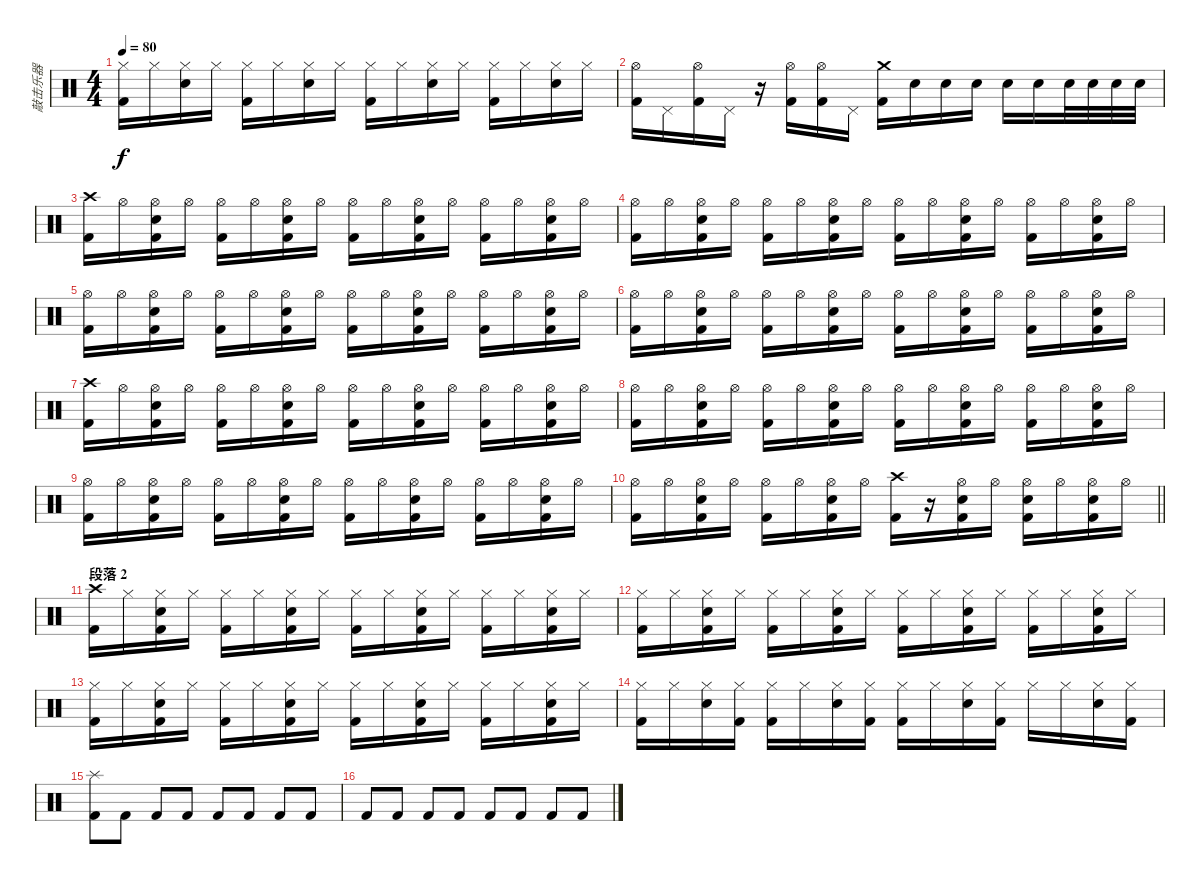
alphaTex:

\track ("敲击乐器" "敲击乐器") {instrument percussion}
\staff {score}
\articulation defaults
\ts (4 4)
\tempo 80
\clef neutral
\ks c
("Hi-Hat (closed)" "Kick (hit) 2").16{dy f} "Hi-Hat (closed)".16 ("Hi-Hat (closed)" "Electric Snare (hit)").16 "Hi-Hat (closed)".16 ("Hi-Hat (closed)" "Kick (hit) 2").16 "Hi-Hat (closed)".16 ("Hi-Hat (closed)" "Electric Snare (hit)").16 "Hi-Hat (closed)".16 ("Hi-Hat (closed)" "Kick (hit) 2").16 "Hi-Hat (closed)".16 ("Hi-Hat (closed)" "Electric Snare (hit)").16 "Hi-Hat (closed)".16 ("Hi-Hat (closed)" "Kick (hit) 2").16 "Hi-Hat (closed)".16 ("Hi-Hat (closed)" "Electric Snare (hit)").16 "Hi-Hat (closed)".16 |
("Hi-Hat (open)" "Kick (hit) 2").16 "Pedal Hi-Hat (hit)".16 ("Hi-Hat (open)" "Kick (hit) 2").16 "Pedal Hi-Hat (hit)".16 r.16 ("Hi-Hat (open)" "Kick (hit) 2").16 ("Hi-Hat (open)" "Kick (hit) 2").16 "Pedal Hi-Hat (hit)".16 ("Crash medium (hit)" "Kick (hit) 2").16 "Electric Snare (hit)".16 "Electric Snare (hit)".16 "Electric Snare (hit)".16 "Electric Snare (hit)".16 "Electric Snare (hit)".16 "Electric Snare (hit)".32 "Electric Snare (hit)".32 "Electric Snare (hit)".32 "Electric Snare (hit)".32 |
("Crash high (hit)" "Kick (hit) 2").16 "Hi-Hat (open)".16 ("Hi-Hat (open)" "Electric Snare (hit)" "Kick (hit) 2").16 "Hi-Hat (open)".16 ("Hi-Hat (open)" "Kick (hit) 2").16 "Hi-Hat (open)".16 ("Hi-Hat (open)" "Electric Snare (hit)" "Kick (hit) 2").16 "Hi-Hat (open)".16 ("Hi-Hat (open)" "Kick (hit) 2").16 "Hi-Hat (open)".16 ("Hi-Hat (open)" "Electric Snare (hit)" "Kick (hit) 2").16 "Hi-Hat (open)".16 ("Hi-Hat (open)" "Kick (hit) 2").16 "Hi-Hat (open)".16 ("Hi-Hat (open)" "Electric Snare (hit)" "Kick (hit) 2").16 "Hi-Hat (open)".16 |
("Hi-Hat (open)" "Kick (hit) 2").16 "Hi-Hat (open)".16 ("Hi-Hat (open)" "Electric Snare (hit)" "Kick (hit) 2").16 "Hi-Hat (open)".16 ("Hi-Hat (open)" "Kick (hit) 2").16 "Hi-Hat (open)".16 ("Hi-Hat (open)" "Electric Snare (hit)" "Kick (hit) 2").16 "Hi-Hat (open)".16 ("Hi-Hat (open)" "Kick (hit) 2").16 "Hi-Hat (open)".16 ("Hi-Hat (open)" "Electric Snare (hit)" "Kick (hit) 2").16 "Hi-Hat (open)".16 ("Hi-Hat (open)" "Kick (hit) 2").16 "Hi-Hat (open)".16 ("Hi-Hat (open)" "Electric Snare (hit)" "Kick (hit) 2").16 "Hi-Hat (open)".16 |
("Hi-Hat (open)" "Kick (hit) 2").16 "Hi-Hat (open)".16 ("Hi-Hat (open)" "Electric Snare (hit)" "Kick (hit) 2").16 "Hi-Hat (open)".16 ("Hi-Hat (open)" "Kick (hit) 2").16 "Hi-Hat (open)".16 ("Hi-Hat (open)" "Electric Snare (hit)" "Kick (hit) 2").16 "Hi-Hat (open)".16 ("Hi-Hat (open)" "Kick (hit) 2").16 "Hi-Hat (open)".16 ("Hi-Hat (open)" "Electric Snare (hit)" "Kick (hit) 2").16 "Hi-Hat (open)".16 ("Hi-Hat (open)" "Kick (hit) 2").16 "Hi-Hat (open)".16 ("Hi-Hat (open)" "Electric Snare (hit)" "Kick (hit) 2").16 "Hi-Hat (open)".16 |
("Hi-Hat (open)" "Kick (hit) 2").16 "Hi-Hat (open)".16 ("Hi-Hat (open)" "Electric Snare (hit)" "Kick (hit) 2").16 "Hi-Hat (open)".16 ("Hi-Hat (open)" "Kick (hit) 2").16 "Hi-Hat (open)".16 ("Hi-Hat (open)" "Electric Snare (hit)" "Kick (hit) 2").16 "Hi-Hat (open)".16 ("Hi-Hat (open)" "Kick (hit) 2").16 "Hi-Hat (open)".16 ("Hi-Hat (open)" "Electric Snare (hit)" "Kick (hit) 2").16 "Hi-Hat (open)".16 ("Hi-Hat (open)" "Kick (hit) 2").16 "Hi-Hat (open)".16 ("Hi-Hat (open)" "Electric Snare (hit)" "Kick (hit) 2").16 "Hi-Hat (open)".16 |
("Crash high (hit)" "Kick (hit) 2").16 "Hi-Hat (open)".16 ("Hi-Hat (open)" "Electric Snare (hit)" "Kick (hit) 2").16 "Hi-Hat (open)".16 ("Hi-Hat (open)" "Kick (hit) 2").16 "Hi-Hat (open)".16 ("Hi-Hat (open)" "Electric Snare (hit)" "Kick (hit) 2").16 "Hi-Hat (open)".16 ("Hi-Hat (open)" "Kick (hit) 2").16 "Hi-Hat (open)".16 ("Hi-Hat (open)" "Electric Snare (hit)" "Kick (hit) 2").16 "Hi-Hat (open)".16 ("Hi-Hat (open)" "Kick (hit) 2").16 "Hi-Hat (open)".16 ("Hi-Hat (open)" "Electric Snare (hit)" "Kick (hit) 2").16 "Hi-Hat (open)".16 |
("Hi-Hat (open)" "Kick (hit) 2").16 "Hi-Hat (open)".16 ("Hi-Hat (open)" "Electric Snare (hit)" "Kick (hit) 2").16 "Hi-Hat (open)".16 ("Hi-Hat (open)" "Kick (hit) 2").16 "Hi-Hat (open)".16 ("Hi-Hat (open)" "Electric Snare (hit)" "Kick (hit) 2").16 "Hi-Hat (open)".16 ("Hi-Hat (open)" "Kick (hit) 2").16 "Hi-Hat (open)".16 ("Hi-Hat (open)" "Electric Snare (hit)" "Kick (hit) 2").16 "Hi-Hat (open)".16 ("Hi-Hat (open)" "Kick (hit) 2").16 "Hi-Hat (open)".16 ("Hi-Hat (open)" "Electric Snare (hit)" "Kick (hit) 2").16 "Hi-Hat (open)".16 |
("Hi-Hat (open)" "Kick (hit) 2").16 "Hi-Hat (open)".16 ("Hi-Hat (open)" "Electric Snare (hit)" "Kick (hit) 2").16 "Hi-Hat (open)".16 ("Hi-Hat (open)" "Kick (hit) 2").16 "Hi-Hat (open)".16 ("Hi-Hat (open)" "Electric Snare (hit)" "Kick (hit) 2").16 "Hi-Hat (open)".16 ("Hi-Hat (open)" "Kick (hit) 2").16 "Hi-Hat (open)".16 ("Hi-Hat (open)" "Electric Snare (hit)" "Kick (hit) 2").16 "Hi-Hat (open)".16 ("Hi-Hat (open)" "Kick (hit) 2").16 "Hi-Hat (open)".16 ("Hi-Hat (open)" "Electric Snare (hit)" "Kick (hit) 2").16 "Hi-Hat (open)".16 |
\barLineRight lightlight
("Hi-Hat (open)" "Kick (hit) 2").16 "Hi-Hat (open)".16 ("Hi-Hat (open)" "Electric Snare (hit)" "Kick (hit) 2").16 "Hi-Hat (open)".16 ("Hi-Hat (open)" "Kick (hit) 2").16 "Hi-Hat (open)".16 ("Hi-Hat (open)" "Electric Snare (hit)" "Kick (hit) 2").16 "Hi-Hat (open)".16 ("Crash high (hit)" "Kick (hit) 2").16 r.16 ("Hi-Hat (open)" "Electric Snare (hit)" "Kick (hit) 2").16 "Hi-Hat (open)".16 ("Hi-Hat (open)" "Electric Snare (hit)" "Kick (hit) 2").16 "Hi-Hat (open)".16 ("Hi-Hat (open)" "Electric Snare (hit)" "Kick (hit) 2").16 "Hi-Hat (open)".16 |
\section ("" "段落 2")
("Crash high (hit)" "Kick (hit) 2").16 "Hi-Hat (closed)".16 ("Hi-Hat (closed)" "Electric Snare (hit)" "Kick (hit) 2").16 "Hi-Hat (closed)".16 ("Hi-Hat (closed)" "Kick (hit) 2").16 "Hi-Hat (closed)".16 ("Hi-Hat (closed)" "Electric Snare (hit)" "Kick (hit) 2").16 "Hi-Hat (closed)".16 ("Hi-Hat (closed)" "Kick (hit) 2").16 "Hi-Hat (closed)".16 ("Hi-Hat (closed)" "Electric Snare (hit)" "Kick (hit) 2").16 "Hi-Hat (closed)".16 ("Hi-Hat (closed)" "Kick (hit) 2").16 "Hi-Hat (closed)".16 ("Hi-Hat (closed)" "Electric Snare (hit)" "Kick (hit) 2").16 "Hi-Hat (closed)".16 |
("Hi-Hat (closed)" "Kick (hit) 2").16 "Hi-Hat (closed)".16 ("Hi-Hat (closed)" "Electric Snare (hit)" "Kick (hit) 2").16 "Hi-Hat (closed)".16 ("Hi-Hat (closed)" "Kick (hit) 2").16 "Hi-Hat (closed)".16 ("Hi-Hat (closed)" "Electric Snare (hit)" "Kick (hit) 2").16 "Hi-Hat (closed)".16 ("Hi-Hat (closed)" "Kick (hit) 2").16 "Hi-Hat (closed)".16 ("Hi-Hat (closed)" "Electric Snare (hit)" "Kick (hit) 2").16 "Hi-Hat (closed)".16 ("Hi-Hat (closed)" "Kick (hit) 2").16 "Hi-Hat (closed)".16 ("Hi-Hat (closed)" "Electric Snare (hit)" "Kick (hit) 2").16 "Hi-Hat (closed)".16 |
("Hi-Hat (closed)" "Kick (hit) 2").16 "Hi-Hat (closed)".16 ("Hi-Hat (closed)" "Electric Snare (hit)" "Kick (hit) 2").16 "Hi-Hat (closed)".16 ("Hi-Hat (closed)" "Kick (hit) 2").16 "Hi-Hat (closed)".16 ("Hi-Hat (closed)" "Electric Snare (hit)" "Kick (hit) 2").16 "Hi-Hat (closed)".16 ("Hi-Hat (closed)" "Kick (hit) 2").16 "Hi-Hat (closed)".16 ("Hi-Hat (closed)" "Electric Snare (hit)" "Kick (hit) 2").16 "Hi-Hat (closed)".16 ("Hi-Hat (closed)" "Kick (hit) 2").16 "Hi-Hat (closed)".16 ("Hi-Hat (closed)" "Electric Snare (hit)" "Kick (hit) 2").16 "Hi-Hat (closed)".16 |
("Hi-Hat (closed)" "Kick (hit) 2").16 "Hi-Hat (closed)".16 ("Hi-Hat (closed)" "Electric Snare (hit)").16 ("Hi-Hat (closed)" "Kick (hit) 2").16 ("Hi-Hat (closed)" "Kick (hit) 2").16 "Hi-Hat (closed)".16 ("Hi-Hat (closed)" "Electric Snare (hit)").16 ("Hi-Hat (closed)" "Kick (hit) 2").16 ("Hi-Hat (closed)" "Kick (hit) 2").16 "Hi-Hat (closed)".16 ("Hi-Hat (closed)" "Electric Snare (hit)").16 ("Hi-Hat (closed)" "Kick (hit) 2").16 "Hi-Hat (closed)".16 "Hi-Hat (closed)".16 ("Hi-Hat (closed)" "Electric Snare (hit)").16 ("Hi-Hat (closed)" "Kick (hit) 2").16 |
("Splash (hit)" "Kick (hit) 2").8 "Kick (hit) 2".8 "Kick (hit) 2".8 "Kick (hit) 2".8 "Kick (hit) 2".8 "Kick (hit) 2".8 "Kick (hit) 2".8 "Kick (hit) 2".8 |
"Kick (hit) 2".8 "Kick (hit) 2".8 "Kick (hit) 2".8 "Kick (hit) 2".8 "Kick (hit) 2".8 "Kick (hit) 2".8 "Kick (hit) 2".8 "Kick (hit) 2".8
